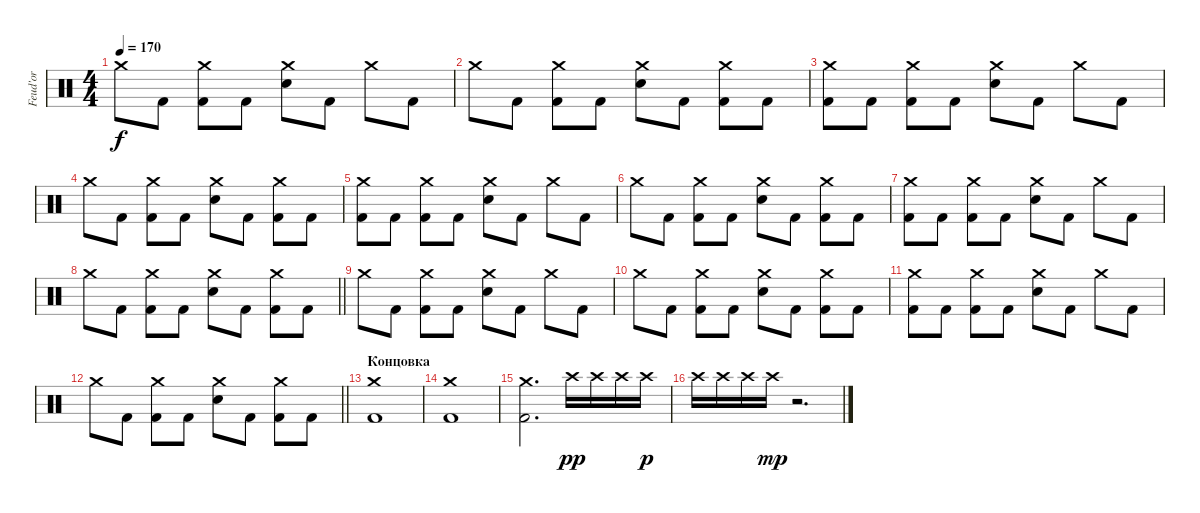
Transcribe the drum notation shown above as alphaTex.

\track ("Feud'or" "Feud'or") {instrument percussion}
\staff {score}
\articulation defaults
\ts (4 4)
\tempo 170
\clef neutral
\ks c "Crash medium (hit)".8{dy f} "Kick (hit) 2".8
("Crash medium (hit)" "Kick (hit) 2").8 "Kick (hit) 2".8 ("Crash medium (hit)" "Electric Snare (hit)").8 "Kick (hit) 2".8 "Crash medium (hit)".8 "Kick (hit) 2".8 |
"Crash medium (hit)".8 "Kick (hit) 2".8 ("Crash medium (hit)" "Kick (hit) 2").8 "Kick (hit) 2".8 ("Crash medium (hit)" "Electric Snare (hit)").8 "Kick (hit) 2".8 ("Crash medium (hit)" "Kick (hit) 2").8 "Kick (hit) 2".8 |
("Crash medium (hit)" "Kick (hit) 2").8 "Kick (hit) 2".8 ("Crash medium (hit)" "Kick (hit) 2").8 "Kick (hit) 2".8 ("Crash medium (hit)" "Electric Snare (hit)").8 "Kick (hit) 2".8 "Crash medium (hit)".8 "Kick (hit) 2".8 |
"Crash medium (hit)".8 "Kick (hit) 2".8 ("Crash medium (hit)" "Kick (hit) 2").8 "Kick (hit) 2".8 ("Crash medium (hit)" "Electric Snare (hit)").8 "Kick (hit) 2".8 ("Crash medium (hit)" "Kick (hit) 2").8 "Kick (hit) 2".8 |
("Crash medium (hit)" "Kick (hit) 2").8 "Kick (hit) 2".8 ("Crash medium (hit)" "Kick (hit) 2").8 "Kick (hit) 2".8 ("Crash medium (hit)" "Electric Snare (hit)").8 "Kick (hit) 2".8 "Crash medium (hit)".8 "Kick (hit) 2".8 |
"Crash medium (hit)".8 "Kick (hit) 2".8 ("Crash medium (hit)" "Kick (hit) 2").8 "Kick (hit) 2".8 ("Crash medium (hit)" "Electric Snare (hit)").8 "Kick (hit) 2".8 ("Crash medium (hit)" "Kick (hit) 2").8 "Kick (hit) 2".8 |
("Crash medium (hit)" "Kick (hit) 2").8 "Kick (hit) 2".8 ("Crash medium (hit)" "Kick (hit) 2").8 "Kick (hit) 2".8 ("Crash medium (hit)" "Electric Snare (hit)").8 "Kick (hit) 2".8 "Crash medium (hit)".8 "Kick (hit) 2".8 |
\barLineRight lightlight "Crash medium (hit)".8 "Kick (hit) 2".8
("Crash medium (hit)" "Kick (hit) 2").8 "Kick (hit) 2".8 ("Crash medium (hit)" "Electric Snare (hit)").8 "Kick (hit) 2".8 ("Crash medium (hit)" "Kick (hit) 2").8 "Kick (hit) 2".8 |
"Crash medium (hit)".8 "Kick (hit) 2".8 ("Crash medium (hit)" "Kick (hit) 2").8 "Kick (hit) 2".8 ("Crash medium (hit)" "Electric Snare (hit)").8 "Kick (hit) 2".8 "Crash medium (hit)".8 "Kick (hit) 2".8 |
"Crash medium (hit)".8 "Kick (hit) 2".8 ("Crash medium (hit)" "Kick (hit) 2").8 "Kick (hit) 2".8 ("Crash medium (hit)" "Electric Snare (hit)").8 "Kick (hit) 2".8 ("Crash medium (hit)" "Kick (hit) 2").8 "Kick (hit) 2".8 |
("Crash medium (hit)" "Kick (hit) 2").8 "Kick (hit) 2".8 ("Crash medium (hit)" "Kick (hit) 2").8 "Kick (hit) 2".8 ("Crash medium (hit)" "Electric Snare (hit)").8 "Kick (hit) 2".8 "Crash medium (hit)".8 "Kick (hit) 2".8 |
\barLineRight lightlight "Crash medium (hit)".8 "Kick (hit) 2".8
("Crash medium (hit)" "Kick (hit) 2").8 "Kick (hit) 2".8 ("Crash medium (hit)" "Electric Snare (hit)").8 "Kick (hit) 2".8 ("Crash medium (hit)" "Kick (hit) 2").8 "Kick (hit) 2".8 |
\section ("" "Концовка")
("Crash medium (hit)" "Kick (hit) 2").1 |
("Crash medium (hit)" "Kick (hit) 2").1 |
("Crash medium (hit)" "Kick (hit) 2").2{d} "Crash high (hit)".16{dy pp} "Crash high (hit)".16 "Crash high (hit)".16 "Crash high (hit)".16{dy p} |
"Crash high (hit)".16 "Crash high (hit)".16 "Crash high (hit)".16 "Crash high (hit)".16{dy mp} r.2{d}
